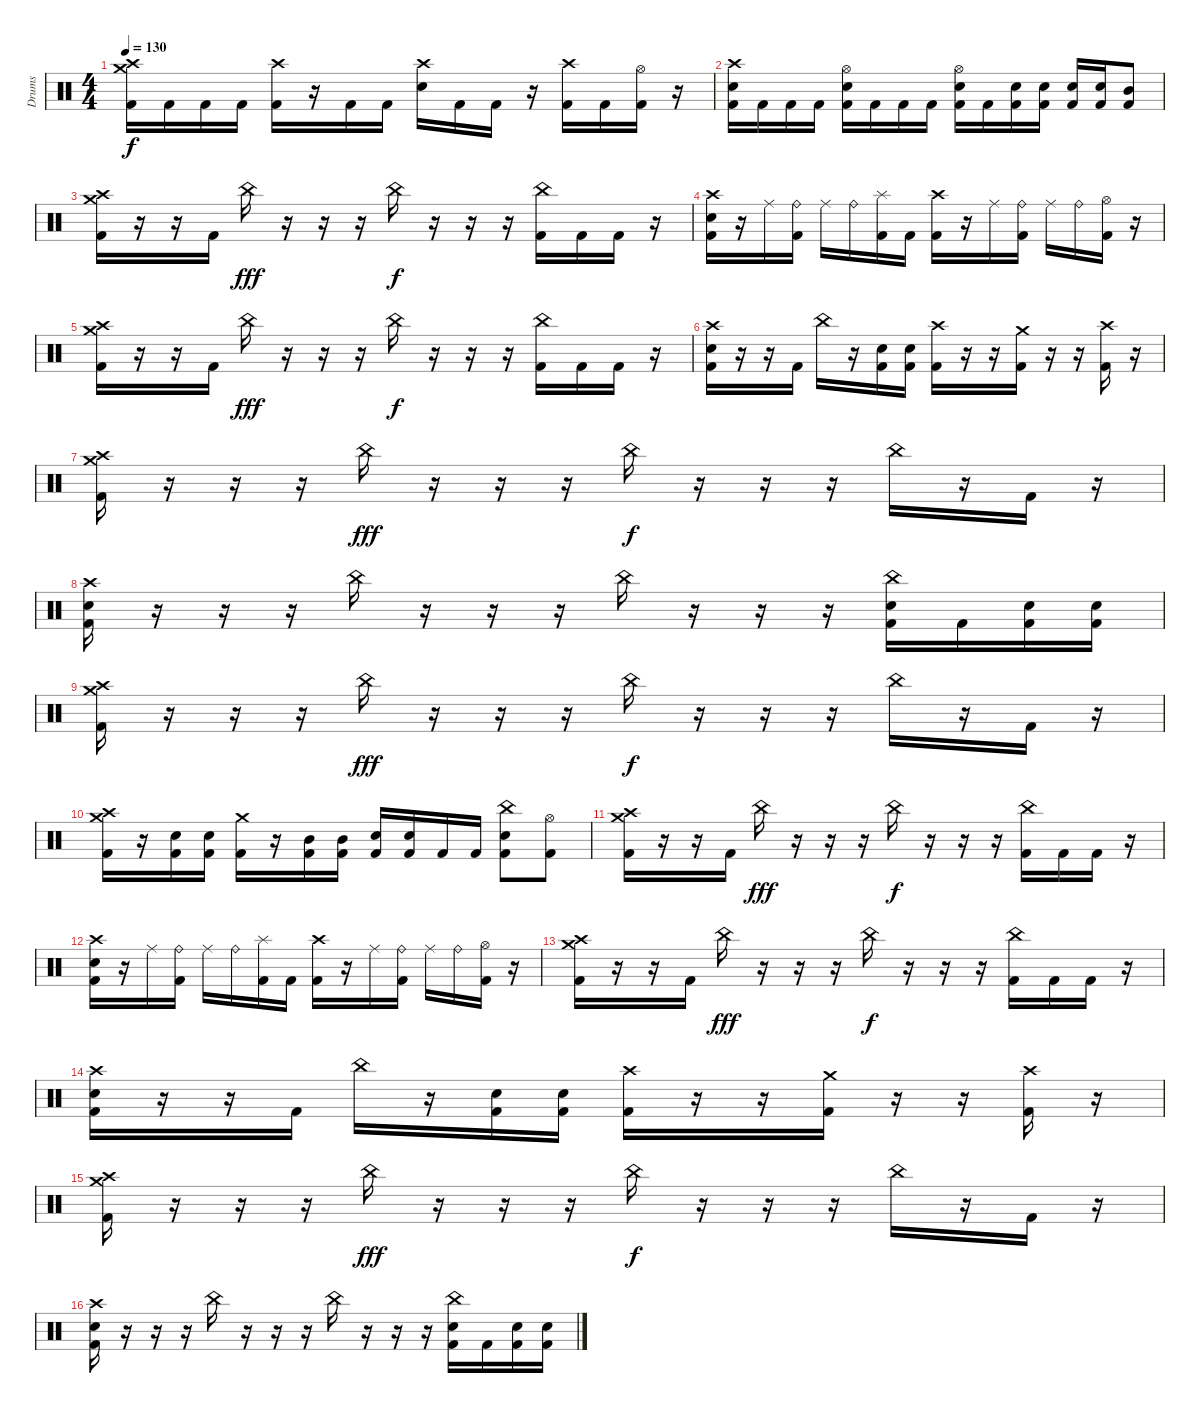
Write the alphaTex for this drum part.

\track ("Drums" "Drums") {instrument percussion}
\staff {score}
\articulation defaults
\ts (4 4)
\tempo 130
\clef neutral
\ks c
("Crash high (hit)" "Crash medium (hit)" "Kick (hit) 2").16{dy f} "Kick (hit) 2".16 "Kick (hit) 2".16 "Kick (hit) 2".16 ("Crash high (hit)" "Kick (hit) 2").16 r.16 "Kick (hit) 2".16 "Kick (hit) 2".16 ("Crash high (hit)" "Electric Snare (hit)").16 "Kick (hit) 2".16 "Kick (hit) 2".16 r.16 ("Crash high (hit)" "Kick (hit) 2").16 "Kick (hit) 2".16 ("Hi-Hat (open)" "Kick (hit) 2").16 r.16 |
("Crash high (hit)" "Electric Snare (hit)" "Kick (hit) 2").16 "Kick (hit) 2".16 "Kick (hit) 2".16 "Kick (hit) 2".16 ("Hi-Hat (open)" "Electric Snare (hit)" "Kick (hit) 2").16 "Kick (hit) 2".16 "Kick (hit) 2".16 "Kick (hit) 2".16 ("Hi-Hat (open)" "Electric Snare (hit)" "Kick (hit) 2").16 "Kick (hit) 2".16 ("Electric Snare (hit)" "Kick (hit) 2").16 ("Electric Snare (hit)" "Kick (hit) 2").16 ("Electric Snare (hit)" "Kick (hit) 2").16 ("Electric Snare (hit)" "Kick (hit) 2").16 ("Mid Tom (hit)" "Kick (hit) 2").8 |
("Crash high (hit)" "Crash medium (hit)" "Kick (hit) 2").16 r.16 r.16 "Kick (hit) 2".16 "China (hit)".16{dy fff} r.16 r.16 r.16 "China (hit)".16{dy f} r.16 r.16 r.16 ("China (hit)" "Kick (hit) 2").16 "Kick (hit) 2".16 "Kick (hit) 2".16 r.16 |
("Crash high (hit)" "Electric Snare (hit)" "Kick (hit) 2").16 r.16 "Ride (middle)".16 ("Ride (bell)" "Kick (hit) 2").16 "Ride (middle)".16 "Ride (bell)".16 ("Splash (hit)" "Kick (hit) 2").16 "Kick (hit) 2".16 ("Crash high (hit)" "Kick (hit) 2").16 r.16 "Ride (middle)".16 ("Ride (bell)" "Kick (hit) 2").16 "Ride (middle)".16 "Ride (bell)".16 ("Hi-Hat (open)" "Kick (hit) 2").16 r.16 |
("Crash high (hit)" "Crash medium (hit)" "Kick (hit) 2").16 r.16 r.16 "Kick (hit) 2".16 "China (hit)".16{dy fff} r.16 r.16 r.16 "China (hit)".16{dy f} r.16 r.16 r.16 ("China (hit)" "Kick (hit) 2").16 "Kick (hit) 2".16 "Kick (hit) 2".16 r.16 |
("Crash high (hit)" "Electric Snare (hit)" "Kick (hit) 2").16 r.16 r.16 "Kick (hit) 2".16 "China (hit)".16 r.16 ("Electric Snare (hit)" "Kick (hit) 2").16 ("Electric Snare (hit)" "Kick (hit) 2").16 ("Crash high (hit)" "Kick (hit) 2").16 r.16 r.16 ("Crash medium (hit)" "Kick (hit) 2").16 r.16 r.16 ("Crash high (hit)" "Kick (hit) 2").16 r.16 |
("Crash high (hit)" "Crash medium (hit)" "Kick (hit) 2").16 r.16 r.16 r.16 "China (hit)".16{dy fff} r.16 r.16 r.16 "China (hit)".16{dy f} r.16 r.16 r.16 "China (hit)".16 r.16 "Kick (hit) 2".16 r.16 |
("Crash high (hit)" "Electric Snare (hit)" "Kick (hit) 2").16 r.16 r.16 r.16 "China (hit)".16 r.16 r.16 r.16 "China (hit)".16 r.16 r.16 r.16 ("China (hit)" "Electric Snare (hit)" "Kick (hit) 2").16 "Kick (hit) 2".16 ("Electric Snare (hit)" "Kick (hit) 2").16 ("Electric Snare (hit)" "Kick (hit) 2").16 |
("Crash high (hit)" "Crash medium (hit)" "Kick (hit) 2").16 r.16 r.16 r.16 "China (hit)".16{dy fff} r.16 r.16 r.16 "China (hit)".16{dy f} r.16 r.16 r.16 "China (hit)".16 r.16 "Kick (hit) 2".16 r.16 |
("Crash medium (hit)" "Crash high (hit)" "Kick (hit) 2").16 r.16 ("Electric Snare (hit)" "Kick (hit) 2").16 ("Electric Snare (hit)" "Kick (hit) 2").16 ("Crash medium (hit)" "Kick (hit) 2").16 r.16 ("Mid Tom (hit)" "Kick (hit) 2").16 ("Mid Tom (hit)" "Kick (hit) 2").16 ("Electric Snare (hit)" "Kick (hit) 2").16 ("Electric Snare (hit)" "Kick (hit) 2").16 "Kick (hit) 2".16 "Kick (hit) 2".16 ("China (hit)" "Electric Snare (hit)" "Kick (hit) 2").8 ("Hi-Hat (open)" "Kick (hit) 2").8 |
("Crash high (hit)" "Crash medium (hit)" "Kick (hit) 2").16 r.16 r.16 "Kick (hit) 2".16 "China (hit)".16{dy fff} r.16 r.16 r.16 "China (hit)".16{dy f} r.16 r.16 r.16 ("China (hit)" "Kick (hit) 2").16 "Kick (hit) 2".16 "Kick (hit) 2".16 r.16 |
("Crash high (hit)" "Electric Snare (hit)" "Kick (hit) 2").16 r.16 "Ride (middle)".16 ("Ride (bell)" "Kick (hit) 2").16 "Ride (middle)".16 "Ride (bell)".16 ("Splash (hit)" "Kick (hit) 2").16 "Kick (hit) 2".16 ("Crash high (hit)" "Kick (hit) 2").16 r.16 "Ride (middle)".16 ("Ride (bell)" "Kick (hit) 2").16 "Ride (middle)".16 "Ride (bell)".16 ("Hi-Hat (open)" "Kick (hit) 2").16 r.16 |
("Crash high (hit)" "Crash medium (hit)" "Kick (hit) 2").16 r.16 r.16 "Kick (hit) 2".16 "China (hit)".16{dy fff} r.16 r.16 r.16 "China (hit)".16{dy f} r.16 r.16 r.16 ("China (hit)" "Kick (hit) 2").16 "Kick (hit) 2".16 "Kick (hit) 2".16 r.16 |
("Crash high (hit)" "Electric Snare (hit)" "Kick (hit) 2").16 r.16 r.16 "Kick (hit) 2".16 "China (hit)".16 r.16 ("Electric Snare (hit)" "Kick (hit) 2").16 ("Electric Snare (hit)" "Kick (hit) 2").16 ("Crash high (hit)" "Kick (hit) 2").16 r.16 r.16 ("Crash medium (hit)" "Kick (hit) 2").16 r.16 r.16 ("Crash high (hit)" "Kick (hit) 2").16 r.16 |
("Crash high (hit)" "Crash medium (hit)" "Kick (hit) 2").16 r.16 r.16 r.16 "China (hit)".16{dy fff} r.16 r.16 r.16 "China (hit)".16{dy f} r.16 r.16 r.16 "China (hit)".16 r.16 "Kick (hit) 2".16 r.16 |
("Crash high (hit)" "Electric Snare (hit)" "Kick (hit) 2").16 r.16 r.16 r.16 "China (hit)".16 r.16 r.16 r.16 "China (hit)".16 r.16 r.16 r.16 ("China (hit)" "Electric Snare (hit)" "Kick (hit) 2").16 "Kick (hit) 2".16 ("Electric Snare (hit)" "Kick (hit) 2").16 ("Electric Snare (hit)" "Kick (hit) 2").16
